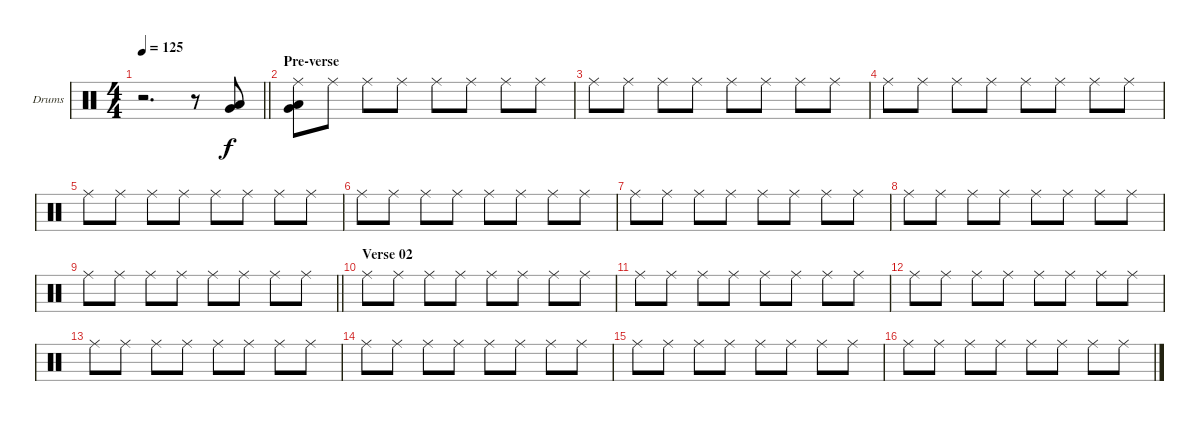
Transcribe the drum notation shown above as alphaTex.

\bracketExtendMode groupsimilarinstruments
\firstSystemTrackNameOrientation horizontal
\otherSystemsTrackNameOrientation horizontal
\track ("Drumkit" "Drums") {instrument percussion}
\staff {score}
\articulation defaults
\ts (4 4)
\tempo 125
\clef neutral
\barLineRight lightlight
\ks c
r.2{d dy f} r.8 ("Low Tom (hit)" "Very Low Tom (hit)").8 |
\section ("" "Pre-verse")
("Ride (middle)" "Low Tom (hit)" "Very Low Tom (hit)").8 "Ride (middle)".8 "Ride (middle)".8 "Ride (middle)".8 "Ride (middle)".8 "Ride (middle)".8 "Ride (middle)".8 "Ride (middle)".8 |
"Ride (middle)".8 "Ride (middle)".8 "Ride (middle)".8 "Ride (middle)".8 "Ride (middle)".8 "Ride (middle)".8 "Ride (middle)".8 "Ride (middle)".8 |
"Ride (middle)".8 "Ride (middle)".8 "Ride (middle)".8 "Ride (middle)".8 "Ride (middle)".8 "Ride (middle)".8 "Ride (middle)".8 "Ride (middle)".8 |
"Ride (middle)".8 "Ride (middle)".8 "Ride (middle)".8 "Ride (middle)".8 "Ride (middle)".8 "Ride (middle)".8 "Ride (middle)".8 "Ride (middle)".8 |
"Ride (middle)".8 "Ride (middle)".8 "Ride (middle)".8 "Ride (middle)".8 "Ride (middle)".8 "Ride (middle)".8 "Ride (middle)".8 "Ride (middle)".8 |
"Ride (middle)".8 "Ride (middle)".8 "Ride (middle)".8 "Ride (middle)".8 "Ride (middle)".8 "Ride (middle)".8 "Ride (middle)".8 "Ride (middle)".8 |
"Ride (middle)".8 "Ride (middle)".8 "Ride (middle)".8 "Ride (middle)".8 "Ride (middle)".8 "Ride (middle)".8 "Ride (middle)".8 "Ride (middle)".8 |
\barLineRight lightlight "Ride (middle)".8 "Ride (middle)".8 "Ride (middle)".8 "Ride (middle)".8 "Ride (middle)".8 "Ride (middle)".8 "Ride (middle)".8 "Ride (middle)".8
|
\section ("" "Verse 02")
"Ride (middle)".8 "Ride (middle)".8 "Ride (middle)".8 "Ride (middle)".8 "Ride (middle)".8 "Ride (middle)".8 "Ride (middle)".8 "Ride (middle)".8 |
"Ride (middle)".8 "Ride (middle)".8 "Ride (middle)".8 "Ride (middle)".8 "Ride (middle)".8 "Ride (middle)".8 "Ride (middle)".8 "Ride (middle)".8 |
"Ride (middle)".8 "Ride (middle)".8 "Ride (middle)".8 "Ride (middle)".8 "Ride (middle)".8 "Ride (middle)".8 "Ride (middle)".8 "Ride (middle)".8 |
"Ride (middle)".8 "Ride (middle)".8 "Ride (middle)".8 "Ride (middle)".8 "Ride (middle)".8 "Ride (middle)".8 "Ride (middle)".8 "Ride (middle)".8 |
"Ride (middle)".8 "Ride (middle)".8 "Ride (middle)".8 "Ride (middle)".8 "Ride (middle)".8 "Ride (middle)".8 "Ride (middle)".8 "Ride (middle)".8 |
"Ride (middle)".8 "Ride (middle)".8 "Ride (middle)".8 "Ride (middle)".8 "Ride (middle)".8 "Ride (middle)".8 "Ride (middle)".8 "Ride (middle)".8 |
"Ride (middle)".8 "Ride (middle)".8 "Ride (middle)".8 "Ride (middle)".8 "Ride (middle)".8 "Ride (middle)".8 "Ride (middle)".8 "Ride (middle)".8
